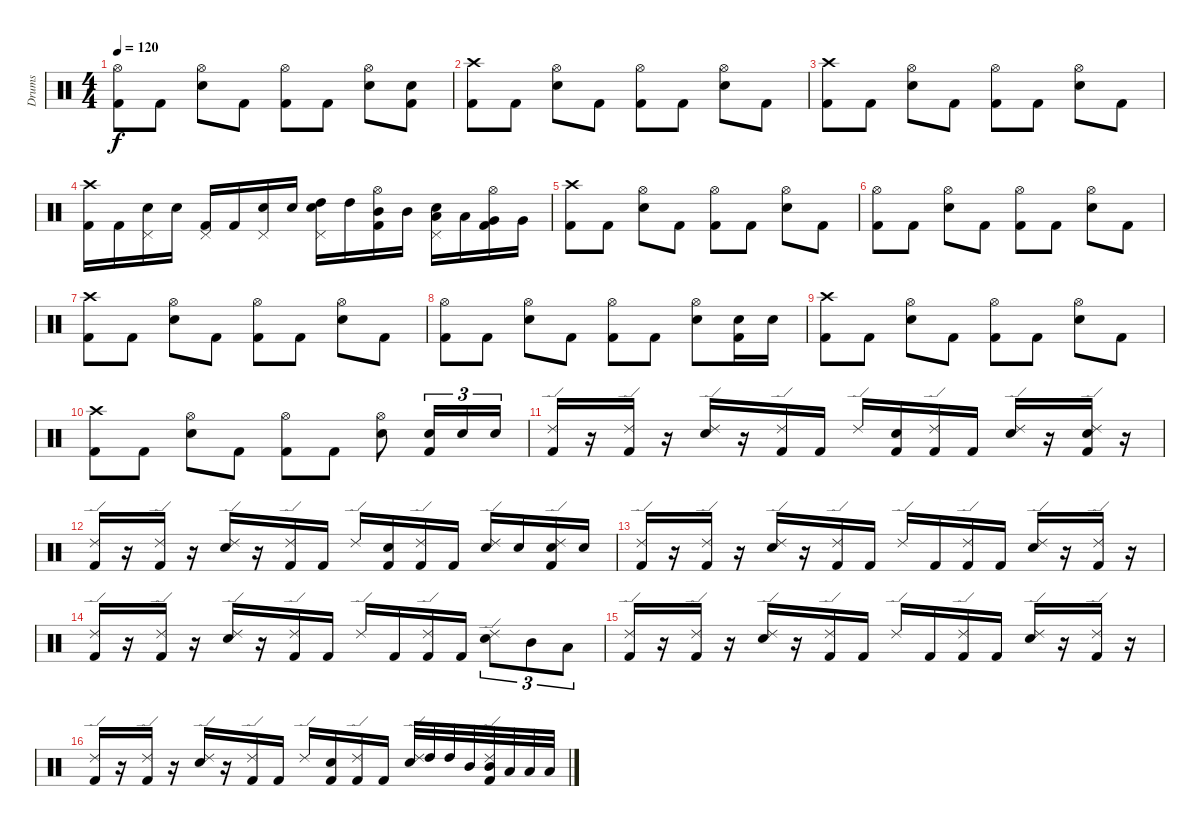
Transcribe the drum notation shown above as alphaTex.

\track ("Drums" "Drums") {instrument percussion}
\staff {score}
\articulation defaults
\ts (4 4)
\tempo 120
\clef neutral
\ks c
("Hi-Hat (open)" "Kick (hit) 2").8{dy f} "Kick (hit) 2".8 ("Hi-Hat (open)" "Electric Snare (hit)").8 "Kick (hit) 2".8 ("Hi-Hat (open)" "Kick (hit) 2").8 "Kick (hit) 2".8 ("Hi-Hat (open)" "Electric Snare (hit)").8 ("Electric Snare (hit)" "Kick (hit) 2").8 |
("Crash high (hit)" "Kick (hit) 2").8 "Kick (hit) 2".8 ("Hi-Hat (open)" "Electric Snare (hit)").8 "Kick (hit) 2".8 ("Hi-Hat (open)" "Kick (hit) 2").8 "Kick (hit) 2".8 ("Hi-Hat (open)" "Electric Snare (hit)").8 "Kick (hit) 2".8 |
("Crash high (hit)" "Kick (hit) 2").8 "Kick (hit) 2".8 ("Hi-Hat (open)" "Electric Snare (hit)").8 "Kick (hit) 2".8 ("Hi-Hat (open)" "Kick (hit) 2").8 "Kick (hit) 2".8 ("Hi-Hat (open)" "Electric Snare (hit)").8 "Kick (hit) 2".8 |
("Crash high (hit)" "Kick (hit) 2").16 "Kick (hit) 2".16 ("Pedal Hi-Hat (hit)" "Electric Snare (hit)").16 "Electric Snare (hit)".16 ("Pedal Hi-Hat (hit)" "Kick (hit) 2").16 "Kick (hit) 2".16 ("Pedal Hi-Hat (hit)" "Electric Snare (hit)").16 "Electric Snare (hit)".16 ("Pedal Hi-Hat (hit)" "Electric Snare (hit)" "High Tom (hit)").16 "High Tom (hit)".16 ("Hi-Hat (open)" "Mid Tom (hit)" "Kick (hit) 2").16 "Mid Tom (hit)".16 ("Pedal Hi-Hat (hit)" "Electric Snare (hit)" "Low Tom (hit)").16 "Low Tom (hit)".16 ("Hi-Hat (open)" "Very Low Tom (hit)" "Kick (hit) 2").16 "Very Low Tom (hit)".16 |
("Crash high (hit)" "Kick (hit) 2").8 "Kick (hit) 2".8 ("Hi-Hat (open)" "Electric Snare (hit)").8 "Kick (hit) 2".8 ("Hi-Hat (open)" "Kick (hit) 2").8 "Kick (hit) 2".8 ("Hi-Hat (open)" "Electric Snare (hit)").8 "Kick (hit) 2".8 |
("Hi-Hat (open)" "Kick (hit) 2").8 "Kick (hit) 2".8 ("Hi-Hat (open)" "Electric Snare (hit)").8 "Kick (hit) 2".8 ("Hi-Hat (open)" "Kick (hit) 2").8 "Kick (hit) 2".8 ("Hi-Hat (open)" "Electric Snare (hit)").8 "Kick (hit) 2".8 |
("Crash high (hit)" "Kick (hit) 2").8 "Kick (hit) 2".8 ("Hi-Hat (open)" "Electric Snare (hit)").8 "Kick (hit) 2".8 ("Hi-Hat (open)" "Kick (hit) 2").8 "Kick (hit) 2".8 ("Hi-Hat (open)" "Electric Snare (hit)").8 "Kick (hit) 2".8 |
("Hi-Hat (open)" "Kick (hit) 2").8 "Kick (hit) 2".8 ("Hi-Hat (open)" "Electric Snare (hit)").8 "Kick (hit) 2".8 ("Hi-Hat (open)" "Kick (hit) 2").8 "Kick (hit) 2".8 ("Hi-Hat (open)" "Electric Snare (hit)").8 ("Electric Snare (hit)" "Kick (hit) 2").16 "Electric Snare (hit)".16 |
("Crash high (hit)" "Kick (hit) 2").8 "Kick (hit) 2".8 ("Hi-Hat (open)" "Electric Snare (hit)").8 "Kick (hit) 2".8 ("Hi-Hat (open)" "Kick (hit) 2").8 "Kick (hit) 2".8 ("Hi-Hat (open)" "Electric Snare (hit)").8 "Kick (hit) 2".8 |
("Crash high (hit)" "Kick (hit) 2").8 "Kick (hit) 2".8 ("Hi-Hat (open)" "Electric Snare (hit)").8 "Kick (hit) 2".8 ("Hi-Hat (open)" "Kick (hit) 2").8 "Kick (hit) 2".8 ("Hi-Hat (open)" "Electric Snare (hit)").8 ("Electric Snare (hit)" "Kick (hit) 2").16{tu (3 2)} "Electric Snare (hit)".16{tu (3 2)} "Electric Snare (hit)".16{tu (3 2)} |
("Ride (edge) 2" "Kick (hit) 2").16 r.16 ("Ride (edge) 2" "Kick (hit) 2").16 r.16 ("Ride (edge) 2" "Electric Snare (hit)").16 r.16 ("Ride (edge) 2" "Kick (hit) 2").16 "Kick (hit) 2".16 "Ride (edge) 2".16 ("Electric Snare (hit)" "Kick (hit) 2").16 ("Ride (edge) 2" "Kick (hit) 2").16 "Kick (hit) 2".16 ("Ride (edge) 2" "Electric Snare (hit)").16 r.16 ("Ride (edge) 2" "Electric Snare (hit)" "Kick (hit) 2").16 r.16 |
("Ride (edge) 2" "Kick (hit) 2").16 r.16 ("Ride (edge) 2" "Kick (hit) 2").16 r.16 ("Ride (edge) 2" "Electric Snare (hit)").16 r.16 ("Ride (edge) 2" "Kick (hit) 2").16 "Kick (hit) 2".16 "Ride (edge) 2".16 ("Electric Snare (hit)" "Kick (hit) 2").16 ("Ride (edge) 2" "Kick (hit) 2").16 "Kick (hit) 2".16 ("Ride (edge) 2" "Electric Snare (hit)").16 "Electric Snare (hit)".16 ("Ride (edge) 2" "Electric Snare (hit)" "Kick (hit) 2").16 "Electric Snare (hit)".16 |
("Ride (edge) 2" "Kick (hit) 2").16 r.16 ("Ride (edge) 2" "Kick (hit) 2").16 r.16 ("Ride (edge) 2" "Electric Snare (hit)").16 r.16 ("Ride (edge) 2" "Kick (hit) 2").16 "Kick (hit) 2".16 "Ride (edge) 2".16 "Kick (hit) 2".16 ("Ride (edge) 2" "Kick (hit) 2").16 "Kick (hit) 2".16 ("Ride (edge) 2" "Electric Snare (hit)").16 r.16 ("Ride (edge) 2" "Kick (hit) 2").16 r.16 |
("Ride (edge) 2" "Kick (hit) 2").16 r.16 ("Ride (edge) 2" "Kick (hit) 2").16 r.16 ("Ride (edge) 2" "Electric Snare (hit)").16 r.16 ("Ride (edge) 2" "Kick (hit) 2").16 "Kick (hit) 2".16 "Ride (edge) 2".16 "Kick (hit) 2".16 ("Ride (edge) 2" "Kick (hit) 2").16 "Kick (hit) 2".16 ("Ride (edge) 2" "Electric Snare (hit)").8{tu (3 2)} "Mid Tom (hit)".8{tu (3 2)} "Low Tom (hit)".8{tu (3 2)} |
("Ride (edge) 2" "Kick (hit) 2").16 r.16 ("Ride (edge) 2" "Kick (hit) 2").16 r.16 ("Ride (edge) 2" "Electric Snare (hit)").16 r.16 ("Ride (edge) 2" "Kick (hit) 2").16 "Kick (hit) 2".16 "Ride (edge) 2".16 "Kick (hit) 2".16 ("Ride (edge) 2" "Kick (hit) 2").16 "Kick (hit) 2".16 ("Ride (edge) 2" "Electric Snare (hit)").16 r.16 ("Ride (edge) 2" "Kick (hit) 2").16 r.16 |
("Ride (edge) 2" "Kick (hit) 2").16 r.16 ("Ride (edge) 2" "Kick (hit) 2").16 r.16 ("Ride (edge) 2" "Electric Snare (hit)").16 r.16 ("Ride (edge) 2" "Kick (hit) 2").16 "Kick (hit) 2".16 "Ride (edge) 2".16 ("Electric Snare (hit)" "Kick (hit) 2").16 ("Ride (edge) 2" "Kick (hit) 2").16 "Kick (hit) 2".16 ("Ride (edge) 2" "Electric Snare (hit)").32 "High Tom (hit)".32 "High Tom (hit)".32 "Mid Tom (hit)".32 ("Ride (edge) 2" "Mid Tom (hit)" "Kick (hit) 2").32 "Low Tom (hit)".32 "Low Tom (hit)".32 "Low Tom (hit)".32
